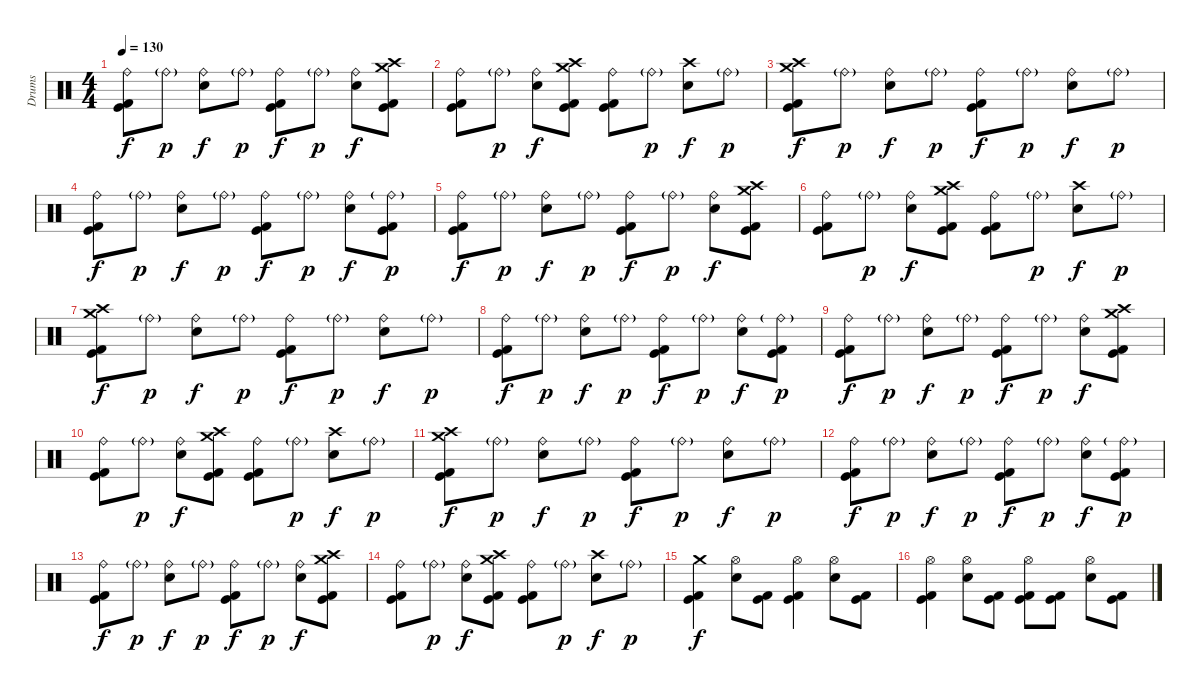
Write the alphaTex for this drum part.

\track ("Drums" "Drums") {instrument percussion}
\staff {score}
\articulation defaults
\ts (4 4)
\tempo 130
\clef neutral
\ks c
("Ride (bell)" "Kick (hit)" "Kick (hit) 2").8{dy f} "Ride (bell)"{g}.8{dy p} ("Ride (bell)" "Electric Snare (hit)").8{dy f} "Ride (bell)"{g}.8{dy p} ("Ride (bell)" "Kick (hit)" "Kick (hit) 2").8{dy f} "Ride (bell)"{g}.8{dy p} ("Ride (bell)" "Electric Snare (hit)").8{dy f} ("Crash medium (hit)" "Crash high (hit)" "Kick (hit)" "Kick (hit) 2").8 |
("Ride (bell)" "Kick (hit)" "Kick (hit) 2").8 "Ride (bell)"{g}.8{dy p} ("Ride (bell)" "Electric Snare (hit)").8{dy f} ("Crash medium (hit)" "Crash high (hit)" "Kick (hit)" "Kick (hit) 2").8 ("Ride (bell)" "Kick (hit)" "Kick (hit) 2").8 "Ride (bell)"{g}.8{dy p} ("Crash high (hit)" "Electric Snare (hit)").8{dy f} "Ride (bell)"{g}.8{dy p} |
("Crash medium (hit)" "Crash high (hit)" "Kick (hit)" "Kick (hit) 2").8{dy f} "Ride (bell)"{g}.8{dy p} ("Ride (bell)" "Electric Snare (hit)").8{dy f} "Ride (bell)"{g}.8{dy p} ("Ride (bell)" "Kick (hit)" "Kick (hit) 2").8{dy f} "Ride (bell)"{g}.8{dy p} ("Ride (bell)" "Electric Snare (hit)").8{dy f} "Ride (bell)"{g}.8{dy p} |
("Ride (bell)" "Kick (hit)" "Kick (hit) 2").8{dy f} "Ride (bell)"{g}.8{dy p} ("Ride (bell)" "Electric Snare (hit)").8{dy f} "Ride (bell)"{g}.8{dy p} ("Ride (bell)" "Kick (hit)" "Kick (hit) 2").8{dy f} "Ride (bell)"{g}.8{dy p} ("Ride (bell)" "Electric Snare (hit)").8{dy f} ("Ride (bell)"{g} "Kick (hit)" "Kick (hit) 2").8{dy p} |
("Ride (bell)" "Kick (hit)" "Kick (hit) 2").8{dy f} "Ride (bell)"{g}.8{dy p} ("Ride (bell)" "Electric Snare (hit)").8{dy f} "Ride (bell)"{g}.8{dy p} ("Ride (bell)" "Kick (hit)" "Kick (hit) 2").8{dy f} "Ride (bell)"{g}.8{dy p} ("Ride (bell)" "Electric Snare (hit)").8{dy f} ("Crash medium (hit)" "Crash high (hit)" "Kick (hit)" "Kick (hit) 2").8 |
("Ride (bell)" "Kick (hit)" "Kick (hit) 2").8 "Ride (bell)"{g}.8{dy p} ("Ride (bell)" "Electric Snare (hit)").8{dy f} ("Crash medium (hit)" "Crash high (hit)" "Kick (hit)" "Kick (hit) 2").8 ("Ride (bell)" "Kick (hit)" "Kick (hit) 2").8 "Ride (bell)"{g}.8{dy p} ("Crash high (hit)" "Electric Snare (hit)").8{dy f} "Ride (bell)"{g}.8{dy p} |
("Crash medium (hit)" "Crash high (hit)" "Kick (hit)" "Kick (hit) 2").8{dy f} "Ride (bell)"{g}.8{dy p} ("Ride (bell)" "Electric Snare (hit)").8{dy f} "Ride (bell)"{g}.8{dy p} ("Ride (bell)" "Kick (hit)" "Kick (hit) 2").8{dy f} "Ride (bell)"{g}.8{dy p} ("Ride (bell)" "Electric Snare (hit)").8{dy f} "Ride (bell)"{g}.8{dy p} |
("Ride (bell)" "Kick (hit)" "Kick (hit) 2").8{dy f} "Ride (bell)"{g}.8{dy p} ("Ride (bell)" "Electric Snare (hit)").8{dy f} "Ride (bell)"{g}.8{dy p} ("Ride (bell)" "Kick (hit)" "Kick (hit) 2").8{dy f} "Ride (bell)"{g}.8{dy p} ("Ride (bell)" "Electric Snare (hit)").8{dy f} ("Ride (bell)"{g} "Kick (hit)" "Kick (hit) 2").8{dy p} |
("Ride (bell)" "Kick (hit)" "Kick (hit) 2").8{dy f} "Ride (bell)"{g}.8{dy p} ("Ride (bell)" "Electric Snare (hit)").8{dy f} "Ride (bell)"{g}.8{dy p} ("Ride (bell)" "Kick (hit)" "Kick (hit) 2").8{dy f} "Ride (bell)"{g}.8{dy p} ("Ride (bell)" "Electric Snare (hit)").8{dy f} ("Crash medium (hit)" "Crash high (hit)" "Kick (hit)" "Kick (hit) 2").8 |
("Ride (bell)" "Kick (hit)" "Kick (hit) 2").8 "Ride (bell)"{g}.8{dy p} ("Ride (bell)" "Electric Snare (hit)").8{dy f} ("Crash medium (hit)" "Crash high (hit)" "Kick (hit)" "Kick (hit) 2").8 ("Ride (bell)" "Kick (hit)" "Kick (hit) 2").8 "Ride (bell)"{g}.8{dy p} ("Crash high (hit)" "Electric Snare (hit)").8{dy f} "Ride (bell)"{g}.8{dy p} |
("Crash medium (hit)" "Crash high (hit)" "Kick (hit)" "Kick (hit) 2").8{dy f} "Ride (bell)"{g}.8{dy p} ("Ride (bell)" "Electric Snare (hit)").8{dy f} "Ride (bell)"{g}.8{dy p} ("Ride (bell)" "Kick (hit)" "Kick (hit) 2").8{dy f} "Ride (bell)"{g}.8{dy p} ("Ride (bell)" "Electric Snare (hit)").8{dy f} "Ride (bell)"{g}.8{dy p} |
("Ride (bell)" "Kick (hit)" "Kick (hit) 2").8{dy f} "Ride (bell)"{g}.8{dy p} ("Ride (bell)" "Electric Snare (hit)").8{dy f} "Ride (bell)"{g}.8{dy p} ("Ride (bell)" "Kick (hit)" "Kick (hit) 2").8{dy f} "Ride (bell)"{g}.8{dy p} ("Ride (bell)" "Electric Snare (hit)").8{dy f} ("Ride (bell)"{g} "Kick (hit)" "Kick (hit) 2").8{dy p} |
("Ride (bell)" "Kick (hit)" "Kick (hit) 2").8{dy f} "Ride (bell)"{g}.8{dy p} ("Ride (bell)" "Electric Snare (hit)").8{dy f} "Ride (bell)"{g}.8{dy p} ("Ride (bell)" "Kick (hit)" "Kick (hit) 2").8{dy f} "Ride (bell)"{g}.8{dy p} ("Ride (bell)" "Electric Snare (hit)").8{dy f} ("Crash medium (hit)" "Crash high (hit)" "Kick (hit)" "Kick (hit) 2").8 |
("Ride (bell)" "Kick (hit)" "Kick (hit) 2").8 "Ride (bell)"{g}.8{dy p} ("Ride (bell)" "Electric Snare (hit)").8{dy f} ("Crash medium (hit)" "Crash high (hit)" "Kick (hit)" "Kick (hit) 2").8 ("Ride (bell)" "Kick (hit)" "Kick (hit) 2").8 "Ride (bell)"{g}.8{dy p} ("Crash high (hit)" "Electric Snare (hit)").8{dy f} "Ride (bell)"{g}.8{dy p} |
("Crash medium (hit)" "Kick (hit)" "Kick (hit) 2").4{dy f} ("Hi-Hat (open)" "Electric Snare (hit)").8 ("Kick (hit)" "Kick (hit) 2").8 ("Hi-Hat (open)" "Kick (hit)" "Kick (hit) 2").4 ("Hi-Hat (open)" "Electric Snare (hit)").8 ("Kick (hit)" "Kick (hit) 2").8 |
("Hi-Hat (open)" "Kick (hit)" "Kick (hit) 2").4 ("Hi-Hat (open)" "Electric Snare (hit)").8 ("Kick (hit)" "Kick (hit) 2").8 ("Hi-Hat (open)" "Kick (hit)" "Kick (hit) 2").8 ("Kick (hit)" "Kick (hit) 2").8 ("Hi-Hat (open)" "Electric Snare (hit)").8 ("Kick (hit)" "Kick (hit) 2").8
